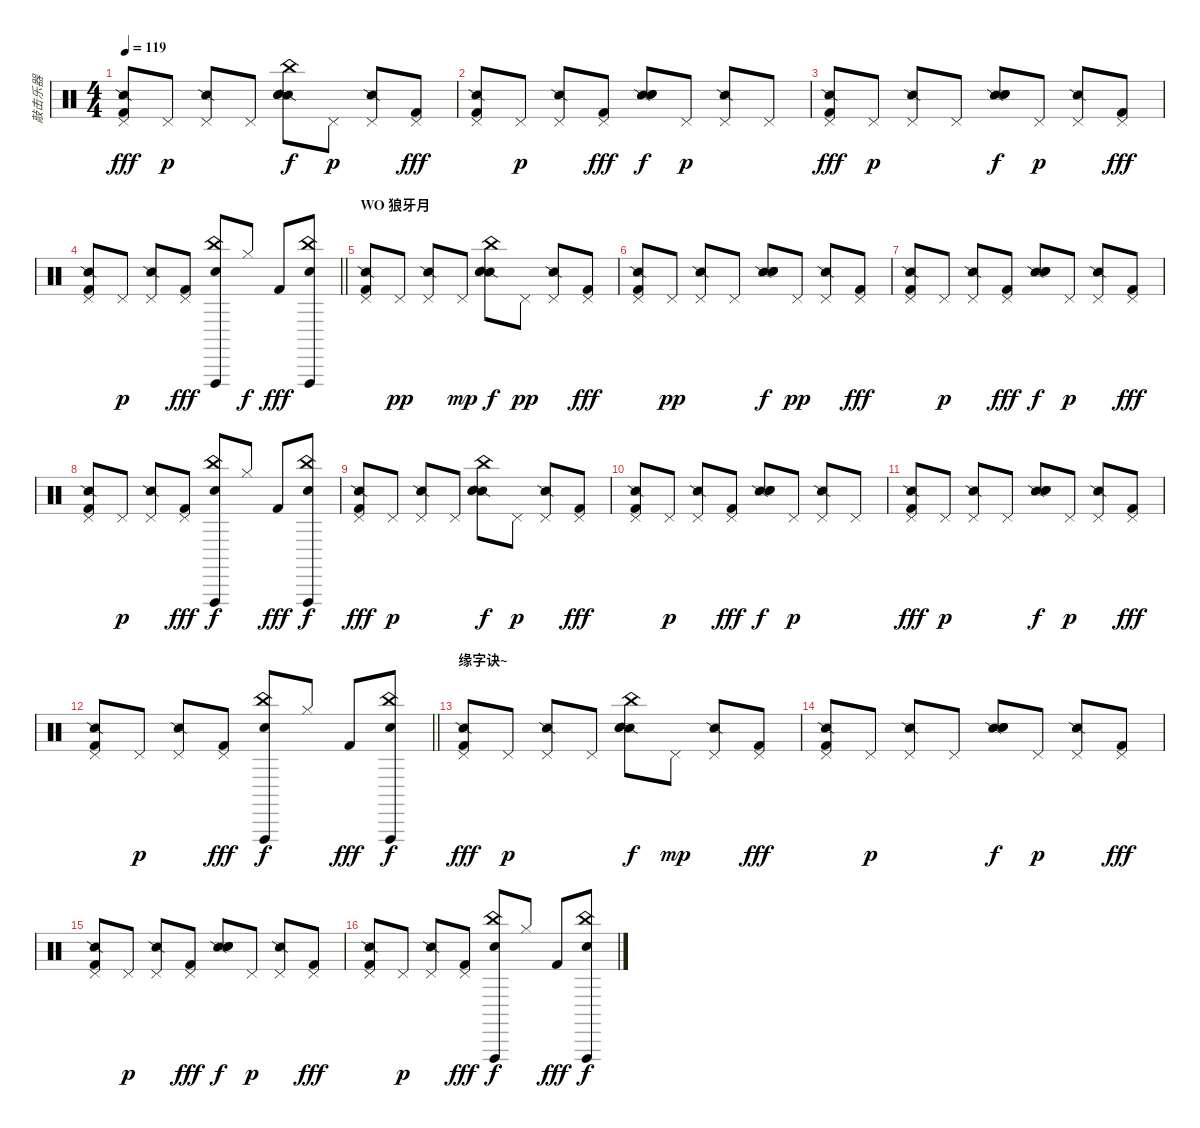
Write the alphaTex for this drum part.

\track ("敲击乐器" "敲击乐器") {instrument percussion}
\staff {score}
\articulation defaults
\ts (4 4)
\tempo 119
\clef neutral
\ks c
("Snare (side stick) 2" "Pedal Hi-Hat (hit)" "Kick (hit) 2").8{dy fff} "Pedal Hi-Hat (hit)".8{dy p} ("Snare (side stick) 2" "Pedal Hi-Hat (hit)").8 "Pedal Hi-Hat (hit)".8 ("Snare (side stick) 2" "Snare (hit) 2" "Hand Clap (hit)" "China (hit)").8{dy f} "Pedal Hi-Hat (hit)".8{dy p} ("Snare (side stick) 2" "Pedal Hi-Hat (hit)").8 ("Pedal Hi-Hat (hit)" "Kick (hit) 2").8{dy fff} |
("Snare (side stick) 2" "Pedal Hi-Hat (hit)" "Kick (hit) 2").8 "Pedal Hi-Hat (hit)".8{dy p} ("Snare (side stick) 2" "Pedal Hi-Hat (hit)").8 ("Pedal Hi-Hat (hit)" "Kick (hit) 2").8{dy fff} ("Snare (side stick) 2" "Snare (hit) 2" "Hand Clap (hit)").8{dy f} "Pedal Hi-Hat (hit)".8{dy p} ("Snare (side stick) 2" "Pedal Hi-Hat (hit)").8 "Pedal Hi-Hat (hit)".8 |
("Snare (side stick) 2" "Pedal Hi-Hat (hit)" "Kick (hit) 2").8{dy fff} "Pedal Hi-Hat (hit)".8{dy p} ("Snare (side stick) 2" "Pedal Hi-Hat (hit)").8 "Pedal Hi-Hat (hit)".8 ("Snare (side stick) 2" "Snare (hit) 2" "Hand Clap (hit)").8{dy f} "Pedal Hi-Hat (hit)".8{dy p} ("Snare (side stick) 2" "Pedal Hi-Hat (hit)").8 ("Pedal Hi-Hat (hit)" "Kick (hit) 2").8{dy fff} |
\barLineRight lightlight
("Snare (side stick) 2" "Pedal Hi-Hat (hit)" "Kick (hit) 2").8 "Pedal Hi-Hat (hit)".8{dy p} ("Snare (side stick) 2" "Pedal Hi-Hat (hit)").8 ("Pedal Hi-Hat (hit)" "Kick (hit) 2").8{dy fff} ("China (hit)" "Vibraslap (hit)" "Hand Clap (hit)").8 "Hi-Hat (closed)".8{dy f} "Kick (hit) 2".8{dy fff} ("China (hit)" "Vibraslap (hit)" "Hand Clap (hit)").8 |
\section ("" "WO 狼牙月")
("Snare (side stick) 2" "Pedal Hi-Hat (hit)" "Kick (hit) 2").8 "Pedal Hi-Hat (hit)".8{dy pp} ("Snare (side stick) 2" "Pedal Hi-Hat (hit)").8 "Pedal Hi-Hat (hit)".8{dy mp} ("Snare (side stick) 2" "Snare (hit) 2" "Hand Clap (hit)" "China (hit)").8{dy f} "Pedal Hi-Hat (hit)".8{dy pp} ("Snare (side stick) 2" "Pedal Hi-Hat (hit)").8 ("Pedal Hi-Hat (hit)" "Kick (hit) 2").8{dy fff} |
("Snare (side stick) 2" "Pedal Hi-Hat (hit)" "Kick (hit) 2").8 "Pedal Hi-Hat (hit)".8{dy pp} ("Snare (side stick) 2" "Pedal Hi-Hat (hit)").8 "Pedal Hi-Hat (hit)".8 ("Snare (side stick) 2" "Snare (hit) 2" "Hand Clap (hit)").8{dy f} "Pedal Hi-Hat (hit)".8{dy pp} ("Snare (side stick) 2" "Pedal Hi-Hat (hit)").8 ("Pedal Hi-Hat (hit)" "Kick (hit) 2").8{dy fff} |
("Snare (side stick) 2" "Pedal Hi-Hat (hit)" "Kick (hit) 2").8 "Pedal Hi-Hat (hit)".8{dy p} ("Snare (side stick) 2" "Pedal Hi-Hat (hit)").8 ("Pedal Hi-Hat (hit)" "Kick (hit) 2").8{dy fff} ("Snare (side stick) 2" "Snare (hit) 2" "Hand Clap (hit)").8{dy f} "Pedal Hi-Hat (hit)".8{dy p} ("Snare (side stick) 2" "Pedal Hi-Hat (hit)").8 ("Pedal Hi-Hat (hit)" "Kick (hit) 2").8{dy fff} |
("Snare (side stick) 2" "Pedal Hi-Hat (hit)" "Kick (hit) 2").8 "Pedal Hi-Hat (hit)".8{dy p} ("Snare (side stick) 2" "Pedal Hi-Hat (hit)").8 ("Pedal Hi-Hat (hit)" "Kick (hit) 2").8{dy fff} ("China (hit)" "Vibraslap (hit)" "Hand Clap (hit)").8{dy f} "Hi-Hat (closed)".8 "Kick (hit) 2".8{dy fff} ("China (hit)" "Vibraslap (hit)" "Hand Clap (hit)").8{dy f} |
("Snare (side stick) 2" "Pedal Hi-Hat (hit)" "Kick (hit) 2").8{dy fff} "Pedal Hi-Hat (hit)".8{dy p} ("Snare (side stick) 2" "Pedal Hi-Hat (hit)").8 "Pedal Hi-Hat (hit)".8 ("Snare (side stick) 2" "Snare (hit) 2" "Hand Clap (hit)" "China (hit)").8{dy f} "Pedal Hi-Hat (hit)".8{dy p} ("Snare (side stick) 2" "Pedal Hi-Hat (hit)").8 ("Pedal Hi-Hat (hit)" "Kick (hit) 2").8{dy fff} |
("Snare (side stick) 2" "Pedal Hi-Hat (hit)" "Kick (hit) 2").8 "Pedal Hi-Hat (hit)".8{dy p} ("Snare (side stick) 2" "Pedal Hi-Hat (hit)").8 ("Pedal Hi-Hat (hit)" "Kick (hit) 2").8{dy fff} ("Snare (side stick) 2" "Snare (hit) 2" "Hand Clap (hit)").8{dy f} "Pedal Hi-Hat (hit)".8{dy p} ("Snare (side stick) 2" "Pedal Hi-Hat (hit)").8 "Pedal Hi-Hat (hit)".8 |
("Snare (side stick) 2" "Pedal Hi-Hat (hit)" "Kick (hit) 2").8{dy fff} "Pedal Hi-Hat (hit)".8{dy p} ("Snare (side stick) 2" "Pedal Hi-Hat (hit)").8 "Pedal Hi-Hat (hit)".8 ("Snare (side stick) 2" "Snare (hit) 2" "Hand Clap (hit)").8{dy f} "Pedal Hi-Hat (hit)".8{dy p} ("Snare (side stick) 2" "Pedal Hi-Hat (hit)").8 ("Pedal Hi-Hat (hit)" "Kick (hit) 2").8{dy fff} |
\barLineRight lightlight
("Snare (side stick) 2" "Pedal Hi-Hat (hit)" "Kick (hit) 2").8 "Pedal Hi-Hat (hit)".8{dy p} ("Snare (side stick) 2" "Pedal Hi-Hat (hit)").8 ("Pedal Hi-Hat (hit)" "Kick (hit) 2").8{dy fff} ("China (hit)" "Vibraslap (hit)" "Hand Clap (hit)").8{dy f} "Hi-Hat (closed)".8 "Kick (hit) 2".8{dy fff} ("China (hit)" "Vibraslap (hit)" "Hand Clap (hit)").8{dy f} |
\section ("" "缘字诀~")
("Snare (side stick) 2" "Pedal Hi-Hat (hit)" "Kick (hit) 2").8{dy fff} "Pedal Hi-Hat (hit)".8{dy p} ("Snare (side stick) 2" "Pedal Hi-Hat (hit)").8 "Pedal Hi-Hat (hit)".8 ("Snare (side stick) 2" "Snare (hit) 2" "Hand Clap (hit)" "China (hit)").8{dy f} "Pedal Hi-Hat (hit)".8{dy mp} ("Snare (side stick) 2" "Pedal Hi-Hat (hit)").8 ("Pedal Hi-Hat (hit)" "Kick (hit) 2").8{dy fff} |
("Snare (side stick) 2" "Pedal Hi-Hat (hit)" "Kick (hit) 2").8 "Pedal Hi-Hat (hit)".8{dy p} ("Snare (side stick) 2" "Pedal Hi-Hat (hit)").8 "Pedal Hi-Hat (hit)".8 ("Snare (side stick) 2" "Snare (hit) 2" "Hand Clap (hit)").8{dy f} "Pedal Hi-Hat (hit)".8{dy p} ("Snare (side stick) 2" "Pedal Hi-Hat (hit)").8 ("Pedal Hi-Hat (hit)" "Kick (hit) 2").8{dy fff} |
("Snare (side stick) 2" "Pedal Hi-Hat (hit)" "Kick (hit) 2").8 "Pedal Hi-Hat (hit)".8{dy p} ("Snare (side stick) 2" "Pedal Hi-Hat (hit)").8 ("Pedal Hi-Hat (hit)" "Kick (hit) 2").8{dy fff} ("Snare (side stick) 2" "Snare (hit) 2" "Hand Clap (hit)").8{dy f} "Pedal Hi-Hat (hit)".8{dy p} ("Snare (side stick) 2" "Pedal Hi-Hat (hit)").8 ("Pedal Hi-Hat (hit)" "Kick (hit) 2").8{dy fff} |
("Snare (side stick) 2" "Pedal Hi-Hat (hit)" "Kick (hit) 2").8 "Pedal Hi-Hat (hit)".8{dy p} ("Snare (side stick) 2" "Pedal Hi-Hat (hit)").8 ("Pedal Hi-Hat (hit)" "Kick (hit) 2").8{dy fff} ("China (hit)" "Vibraslap (hit)" "Hand Clap (hit)").8{dy f} "Hi-Hat (closed)".8 "Kick (hit) 2".8{dy fff} ("China (hit)" "Vibraslap (hit)" "Hand Clap (hit)").8{dy f}
